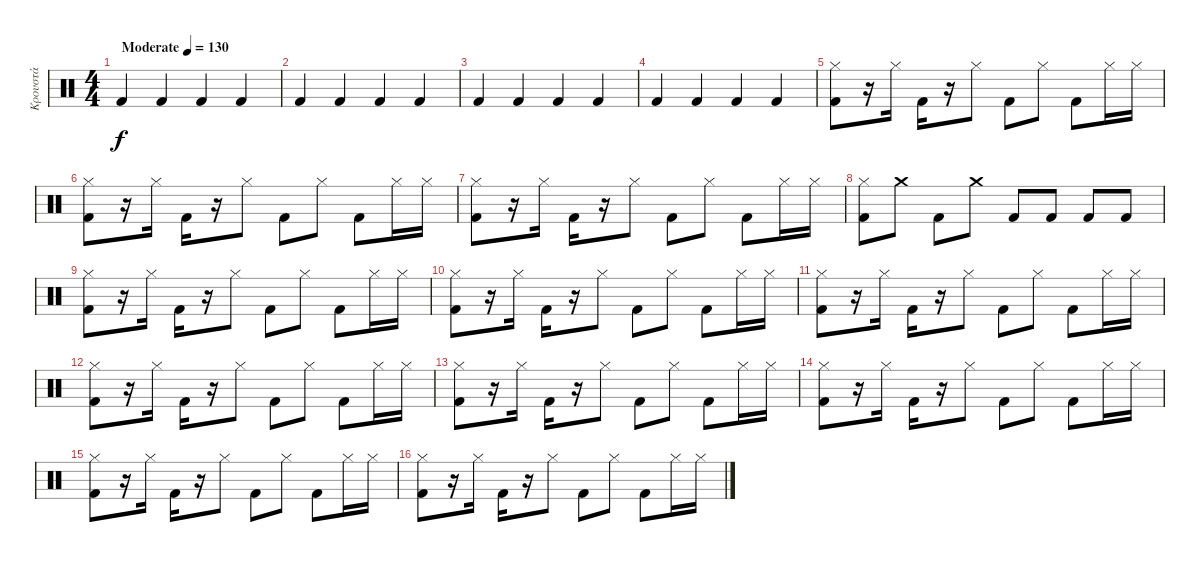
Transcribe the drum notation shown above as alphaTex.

\track ("Κρουστά" "Κρουστά") {instrument percussion}
\staff {score}
\articulation defaults
\ts (4 4)
\tempo (130 "Moderate")
\clef neutral
\ks c "Kick (hit) 2".4{dy f} "Kick (hit) 2".4 "Kick (hit) 2".4 "Kick (hit) 2".4
|
"Kick (hit) 2".4 "Kick (hit) 2".4 "Kick (hit) 2".4 "Kick (hit) 2".4 |
"Kick (hit) 2".4 "Kick (hit) 2".4 "Kick (hit) 2".4 "Kick (hit) 2".4 |
"Kick (hit) 2".4 "Kick (hit) 2".4 "Kick (hit) 2".4 "Kick (hit) 2".4 |
("Kick (hit) 2" "Hi-Hat (closed)").8 r.16 "Hi-Hat (closed)".16 "Kick (hit) 2".16 r.16 "Hi-Hat (closed)".8 "Kick (hit) 2".8 "Hi-Hat (closed)".8 "Kick (hit) 2".8 "Hi-Hat (closed)".16 "Hi-Hat (closed)".16 |
("Kick (hit) 2" "Hi-Hat (closed)").8 r.16 "Hi-Hat (closed)".16 "Kick (hit) 2".16 r.16 "Hi-Hat (closed)".8 "Kick (hit) 2".8 "Hi-Hat (closed)".8 "Kick (hit) 2".8 "Hi-Hat (closed)".16 "Hi-Hat (closed)".16 |
("Kick (hit) 2" "Hi-Hat (closed)").8 r.16 "Hi-Hat (closed)".16 "Kick (hit) 2".16 r.16 "Hi-Hat (closed)".8 "Kick (hit) 2".8 "Hi-Hat (closed)".8 "Kick (hit) 2".8 "Hi-Hat (closed)".16 "Hi-Hat (closed)".16 |
("Kick (hit) 2" "Hi-Hat (closed)").8 "Crash medium (hit)".8 "Kick (hit) 2".8 "Crash medium (hit)".8 "Kick (hit) 2".8 "Kick (hit) 2".8 "Kick (hit) 2".8 "Kick (hit) 2".8 |
("Kick (hit) 2" "Hi-Hat (closed)").8 r.16 "Hi-Hat (closed)".16 "Kick (hit) 2".16 r.16 "Hi-Hat (closed)".8 "Kick (hit) 2".8 "Hi-Hat (closed)".8 "Kick (hit) 2".8 "Hi-Hat (closed)".16 "Hi-Hat (closed)".16 |
("Kick (hit) 2" "Hi-Hat (closed)").8 r.16 "Hi-Hat (closed)".16 "Kick (hit) 2".16 r.16 "Hi-Hat (closed)".8 "Kick (hit) 2".8 "Hi-Hat (closed)".8 "Kick (hit) 2".8 "Hi-Hat (closed)".16 "Hi-Hat (closed)".16 |
("Kick (hit) 2" "Hi-Hat (closed)").8 r.16 "Hi-Hat (closed)".16 "Kick (hit) 2".16 r.16 "Hi-Hat (closed)".8 "Kick (hit) 2".8 "Hi-Hat (closed)".8 "Kick (hit) 2".8 "Hi-Hat (closed)".16 "Hi-Hat (closed)".16 |
("Kick (hit) 2" "Hi-Hat (closed)").8 r.16 "Hi-Hat (closed)".16 "Kick (hit) 2".16 r.16 "Hi-Hat (closed)".8 "Kick (hit) 2".8 "Hi-Hat (closed)".8 "Kick (hit) 2".8 "Hi-Hat (closed)".16 "Hi-Hat (closed)".16 |
("Kick (hit) 2" "Hi-Hat (closed)").8 r.16 "Hi-Hat (closed)".16 "Kick (hit) 2".16 r.16 "Hi-Hat (closed)".8 "Kick (hit) 2".8 "Hi-Hat (closed)".8 "Kick (hit) 2".8 "Hi-Hat (closed)".16 "Hi-Hat (closed)".16 |
("Kick (hit) 2" "Hi-Hat (closed)").8 r.16 "Hi-Hat (closed)".16 "Kick (hit) 2".16 r.16 "Hi-Hat (closed)".8 "Kick (hit) 2".8 "Hi-Hat (closed)".8 "Kick (hit) 2".8 "Hi-Hat (closed)".16 "Hi-Hat (closed)".16 |
("Kick (hit) 2" "Hi-Hat (closed)").8 r.16 "Hi-Hat (closed)".16 "Kick (hit) 2".16 r.16 "Hi-Hat (closed)".8 "Kick (hit) 2".8 "Hi-Hat (closed)".8 "Kick (hit) 2".8 "Hi-Hat (closed)".16 "Hi-Hat (closed)".16 |
("Kick (hit) 2" "Hi-Hat (closed)").8 r.16 "Hi-Hat (closed)".16 "Kick (hit) 2".16 r.16 "Hi-Hat (closed)".8 "Kick (hit) 2".8 "Hi-Hat (closed)".8 "Kick (hit) 2".8 "Hi-Hat (closed)".16 "Hi-Hat (closed)".16
